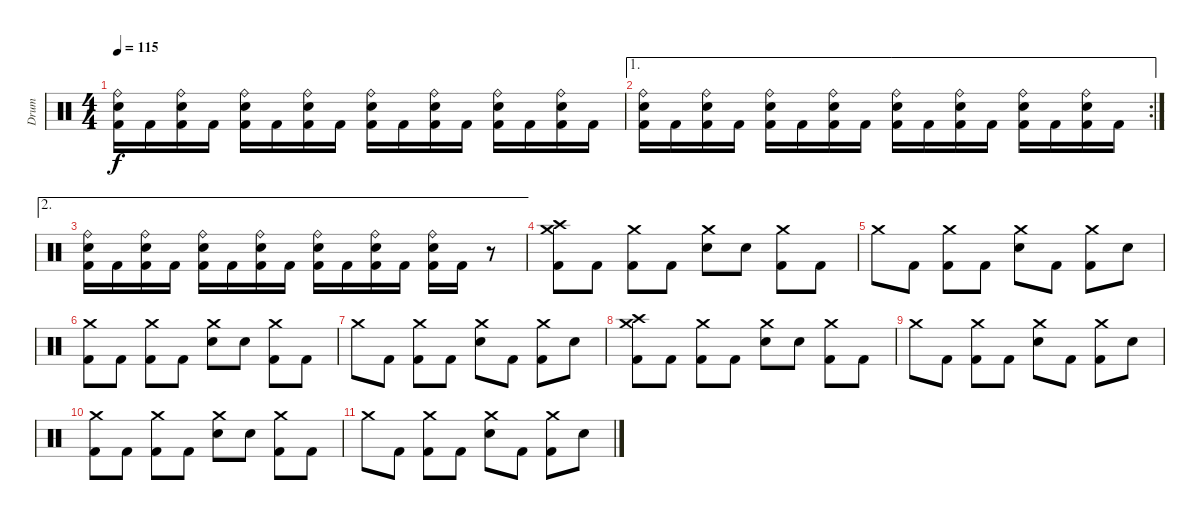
\track ("Drum" "Drum") {instrument percussion}
\staff {score}
\articulation defaults
\ts (4 4)
\tempo 115
\clef neutral
\ks c
("Ride (bell)" "Electric Snare (hit)" "Kick (hit) 2").16{dy f} "Kick (hit) 2".16 ("Ride (bell)" "Electric Snare (hit)" "Kick (hit) 2").16 "Kick (hit) 2".16 ("Ride (bell)" "Electric Snare (hit)" "Kick (hit) 2").16 "Kick (hit) 2".16 ("Ride (bell)" "Electric Snare (hit)" "Kick (hit) 2").16 "Kick (hit) 2".16 ("Ride (bell)" "Electric Snare (hit)" "Kick (hit) 2").16 "Kick (hit) 2".16 ("Ride (bell)" "Electric Snare (hit)" "Kick (hit) 2").16 "Kick (hit) 2".16 ("Ride (bell)" "Electric Snare (hit)" "Kick (hit) 2").16 "Kick (hit) 2".16 ("Ride (bell)" "Electric Snare (hit)" "Kick (hit) 2").16 "Kick (hit) 2".16 |
\ae 1
\rc 2
("Ride (bell)" "Electric Snare (hit)" "Kick (hit) 2").16 "Kick (hit) 2".16 ("Ride (bell)" "Electric Snare (hit)" "Kick (hit) 2").16 "Kick (hit) 2".16 ("Ride (bell)" "Electric Snare (hit)" "Kick (hit) 2").16 "Kick (hit) 2".16 ("Ride (bell)" "Electric Snare (hit)" "Kick (hit) 2").16 "Kick (hit) 2".16 ("Ride (bell)" "Electric Snare (hit)" "Kick (hit) 2").16 "Kick (hit) 2".16 ("Ride (bell)" "Electric Snare (hit)" "Kick (hit) 2").16 "Kick (hit) 2".16 ("Ride (bell)" "Electric Snare (hit)" "Kick (hit) 2").16 "Kick (hit) 2".16 ("Ride (bell)" "Electric Snare (hit)" "Kick (hit) 2").16 "Kick (hit) 2".16 |
\ae 2
("Ride (bell)" "Electric Snare (hit)" "Kick (hit) 2").16 "Kick (hit) 2".16 ("Ride (bell)" "Electric Snare (hit)" "Kick (hit) 2").16 "Kick (hit) 2".16 ("Ride (bell)" "Electric Snare (hit)" "Kick (hit) 2").16 "Kick (hit) 2".16 ("Ride (bell)" "Electric Snare (hit)" "Kick (hit) 2").16 "Kick (hit) 2".16 ("Ride (bell)" "Electric Snare (hit)" "Kick (hit) 2").16 "Kick (hit) 2".16 ("Ride (bell)" "Electric Snare (hit)" "Kick (hit) 2").16 "Kick (hit) 2".16 ("Ride (bell)" "Electric Snare (hit)" "Kick (hit) 2").16 "Kick (hit) 2".16 r.8 |
("Crash high (hit)" "Crash medium (hit)" "Kick (hit) 2").8 "Kick (hit) 2".8 ("Crash medium (hit)" "Kick (hit) 2").8 "Kick (hit) 2".8 ("Crash medium (hit)" "Electric Snare (hit)").8 "Electric Snare (hit)".8 ("Crash medium (hit)" "Kick (hit) 2").8 "Kick (hit) 2".8 |
"Crash medium (hit)".8 "Kick (hit) 2".8 ("Crash medium (hit)" "Kick (hit) 2").8 "Kick (hit) 2".8 ("Crash medium (hit)" "Electric Snare (hit)").8 "Kick (hit) 2".8 ("Crash medium (hit)" "Kick (hit) 2").8 "Electric Snare (hit)".8 |
("Crash medium (hit)" "Kick (hit) 2").8 "Kick (hit) 2".8 ("Crash medium (hit)" "Kick (hit) 2").8 "Kick (hit) 2".8 ("Crash medium (hit)" "Electric Snare (hit)").8 "Electric Snare (hit)".8 ("Crash medium (hit)" "Kick (hit) 2").8 "Kick (hit) 2".8 |
"Crash medium (hit)".8 "Kick (hit) 2".8 ("Crash medium (hit)" "Kick (hit) 2").8 "Kick (hit) 2".8 ("Crash medium (hit)" "Electric Snare (hit)").8 "Kick (hit) 2".8 ("Crash medium (hit)" "Kick (hit) 2").8 "Electric Snare (hit)".8 |
("Crash high (hit)" "Crash medium (hit)" "Kick (hit) 2").8 "Kick (hit) 2".8 ("Crash medium (hit)" "Kick (hit) 2").8 "Kick (hit) 2".8 ("Crash medium (hit)" "Electric Snare (hit)").8 "Electric Snare (hit)".8 ("Crash medium (hit)" "Kick (hit) 2").8 "Kick (hit) 2".8 |
"Crash medium (hit)".8 "Kick (hit) 2".8 ("Crash medium (hit)" "Kick (hit) 2").8 "Kick (hit) 2".8 ("Crash medium (hit)" "Electric Snare (hit)").8 "Kick (hit) 2".8 ("Crash medium (hit)" "Kick (hit) 2").8 "Electric Snare (hit)".8 |
("Crash medium (hit)" "Kick (hit) 2").8 "Kick (hit) 2".8 ("Crash medium (hit)" "Kick (hit) 2").8 "Kick (hit) 2".8 ("Crash medium (hit)" "Electric Snare (hit)").8 "Electric Snare (hit)".8 ("Crash medium (hit)" "Kick (hit) 2").8 "Kick (hit) 2".8 |
"Crash medium (hit)".8 "Kick (hit) 2".8 ("Crash medium (hit)" "Kick (hit) 2").8 "Kick (hit) 2".8 ("Crash medium (hit)" "Electric Snare (hit)").8 "Kick (hit) 2".8 ("Crash medium (hit)" "Kick (hit) 2").8 "Electric Snare (hit)".8
